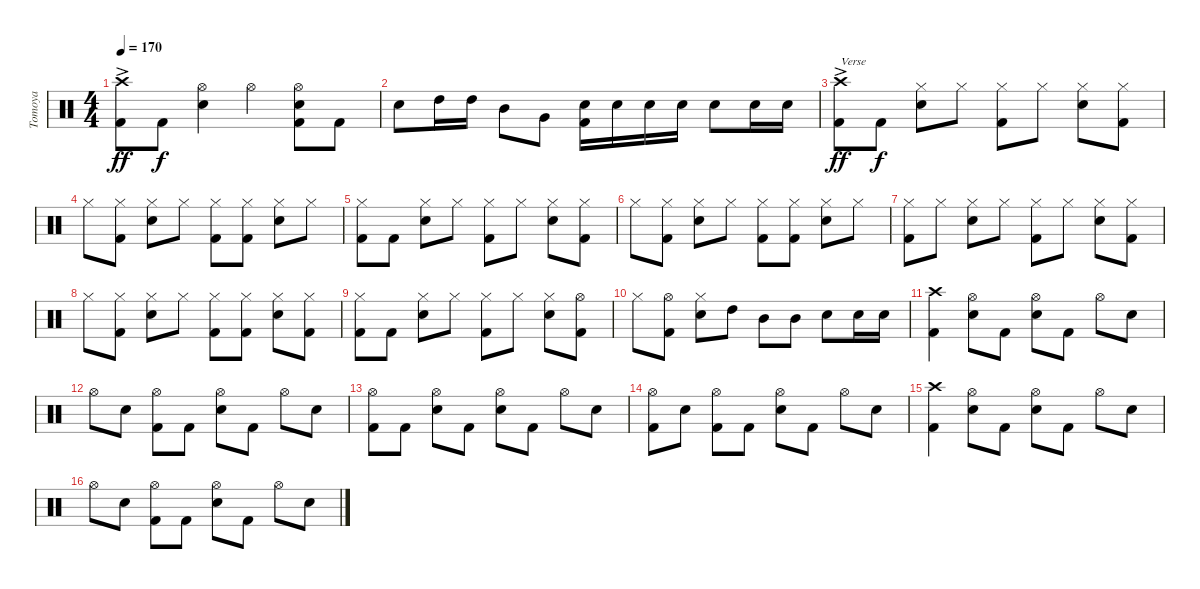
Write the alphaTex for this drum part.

\track ("Tomoya" "Tomoya") {instrument percussion}
\staff {score}
\articulation defaults
\ts (4 4)
\tempo 170
\clef neutral
\ks c
("Crash high (hit)"{ac} "Kick (hit) 2"{ac}).8{dy ff beam Down} "Kick (hit) 2".8{dy f beam Down} ("Hi-Hat (open)" "Snare (hit) 2").4{beam Down} "Hi-Hat (open)".4{beam Down} ("Hi-Hat (open)" "Snare (hit) 2" "Kick (hit) 2").8{beam Down} "Kick (hit) 2".8{beam Down} |
"Snare (hit) 2".8{beam Down} "High Tom (hit)".16{beam Down} "High Tom (hit)".16{beam Down} "Mid Tom (hit)".8{beam Down} "Very Low Tom (hit)".8{beam Down} ("Snare (hit) 2" "Kick (hit) 2").16{beam Down} "Snare (hit) 2".16{beam Down} "Snare (hit) 2".16{beam Down} "Snare (hit) 2".16{beam Down} "Snare (hit) 2".8{beam Down} "Snare (hit) 2".16{beam Down} "Snare (hit) 2".16{beam Down} |
("Crash high (hit)"{ac} "Kick (hit) 2"{ac}).8{txt "Verse" dy ff beam Down} "Kick (hit) 2".8{dy f beam Down} ("Hi-Hat (closed)" "Snare (hit) 2").8{beam Down} "Hi-Hat (closed)".8{beam Down} ("Hi-Hat (closed)" "Kick (hit) 2").8{beam Down} "Hi-Hat (closed)".8{beam Down} ("Hi-Hat (closed)" "Snare (hit) 2").8{beam Down} ("Hi-Hat (closed)" "Kick (hit) 2").8{beam Down} |
"Hi-Hat (closed)".8{beam Down} ("Hi-Hat (closed)" "Kick (hit) 2").8{beam Down} ("Hi-Hat (closed)" "Snare (hit) 2").8{beam Down} "Hi-Hat (closed)".8{beam Down} ("Hi-Hat (closed)" "Kick (hit) 2").8{beam Down} ("Hi-Hat (closed)" "Kick (hit) 2").8{beam Down} ("Hi-Hat (closed)" "Snare (hit) 2").8{beam Down} "Hi-Hat (closed)".8{beam Down} |
("Hi-Hat (closed)" "Kick (hit) 2").8{beam Down} "Kick (hit) 2".8{beam Down} ("Hi-Hat (closed)" "Snare (hit) 2").8{beam Down} "Hi-Hat (closed)".8{beam Down} ("Hi-Hat (closed)" "Kick (hit) 2").8{beam Down} "Hi-Hat (closed)".8{beam Down} ("Hi-Hat (closed)" "Snare (hit) 2").8{beam Down} ("Hi-Hat (closed)" "Kick (hit) 2").8{beam Down} |
"Hi-Hat (closed)".8{beam Down} ("Hi-Hat (closed)" "Kick (hit) 2").8{beam Down} ("Hi-Hat (closed)" "Snare (hit) 2").8{beam Down} "Hi-Hat (closed)".8{beam Down} ("Hi-Hat (closed)" "Kick (hit) 2").8{beam Down} ("Hi-Hat (closed)" "Kick (hit) 2").8{beam Down} ("Hi-Hat (closed)" "Snare (hit) 2").8{beam Down} "Hi-Hat (closed)".8{beam Down} |
("Hi-Hat (closed)" "Kick (hit) 2").8 "Hi-Hat (closed)".8 ("Hi-Hat (closed)" "Snare (hit) 2").8 "Hi-Hat (closed)".8 ("Hi-Hat (closed)" "Kick (hit) 2").8 "Hi-Hat (closed)".8 ("Hi-Hat (closed)" "Snare (hit) 2").8 ("Hi-Hat (closed)" "Kick (hit) 2").8 |
"Hi-Hat (closed)".8 ("Hi-Hat (closed)" "Kick (hit) 2").8 ("Hi-Hat (closed)" "Snare (hit) 2").8 "Hi-Hat (closed)".8 ("Hi-Hat (closed)" "Kick (hit) 2").8 ("Hi-Hat (closed)" "Kick (hit) 2").8 ("Hi-Hat (closed)" "Snare (hit) 2").8 ("Hi-Hat (closed)" "Kick (hit) 2").8 |
("Hi-Hat (closed)" "Kick (hit) 2").8{beam Down} "Kick (hit) 2".8{beam Down} ("Hi-Hat (closed)" "Snare (hit) 2").8{beam Down} "Hi-Hat (closed)".8{beam Down} ("Hi-Hat (closed)" "Kick (hit) 2").8{beam Down} "Hi-Hat (closed)".8{beam Down} ("Hi-Hat (closed)" "Snare (hit) 2").8{beam Down} ("Hi-Hat (open)" "Kick (hit) 2").8{beam Down} |
"Hi-Hat (closed)".8{beam Down} ("Hi-Hat (open)" "Kick (hit) 2").8{beam Down} ("Hi-Hat (closed)" "Snare (hit) 2").8{beam Down} "High Tom (hit)".8{beam Down} "Mid Tom (hit)".8{beam Down} "Mid Tom (hit)".8{beam Down} "Snare (hit) 2".8{beam Down} "Snare (hit) 2".16{beam Down} "Snare (hit) 2".16{beam Down} |
("Crash high (hit)" "Kick (hit) 2").4 ("Hi-Hat (open)" "Snare (hit) 2").8 "Kick (hit) 2".8 ("Hi-Hat (open)" "Snare (hit) 2").8 "Kick (hit) 2".8 "Hi-Hat (open)".8 "Snare (hit) 2".8 |
"Hi-Hat (open)".8 "Snare (hit) 2".8 ("Hi-Hat (open)" "Kick (hit) 2").8 "Kick (hit) 2".8 ("Hi-Hat (open)" "Snare (hit) 2").8 "Kick (hit) 2".8 "Hi-Hat (open)".8 "Snare (hit) 2".8 |
("Hi-Hat (open)" "Kick (hit) 2").8 "Kick (hit) 2".8 ("Hi-Hat (open)" "Snare (hit) 2").8 "Kick (hit) 2".8 ("Hi-Hat (open)" "Snare (hit) 2").8 "Kick (hit) 2".8 "Hi-Hat (open)".8 "Snare (hit) 2".8 |
("Hi-Hat (open)" "Kick (hit) 2").8 "Snare (hit) 2".8 ("Hi-Hat (open)" "Kick (hit) 2").8 "Kick (hit) 2".8 ("Hi-Hat (open)" "Snare (hit) 2").8 "Kick (hit) 2".8 "Hi-Hat (open)".8 "Snare (hit) 2".8 |
("Crash high (hit)" "Kick (hit) 2").4 ("Hi-Hat (open)" "Snare (hit) 2").8 "Kick (hit) 2".8 ("Hi-Hat (open)" "Snare (hit) 2").8 "Kick (hit) 2".8 "Hi-Hat (open)".8 "Snare (hit) 2".8 |
"Hi-Hat (open)".8 "Snare (hit) 2".8 ("Hi-Hat (open)" "Kick (hit) 2").8 "Kick (hit) 2".8 ("Hi-Hat (open)" "Snare (hit) 2").8 "Kick (hit) 2".8 "Hi-Hat (open)".8 "Snare (hit) 2".8
